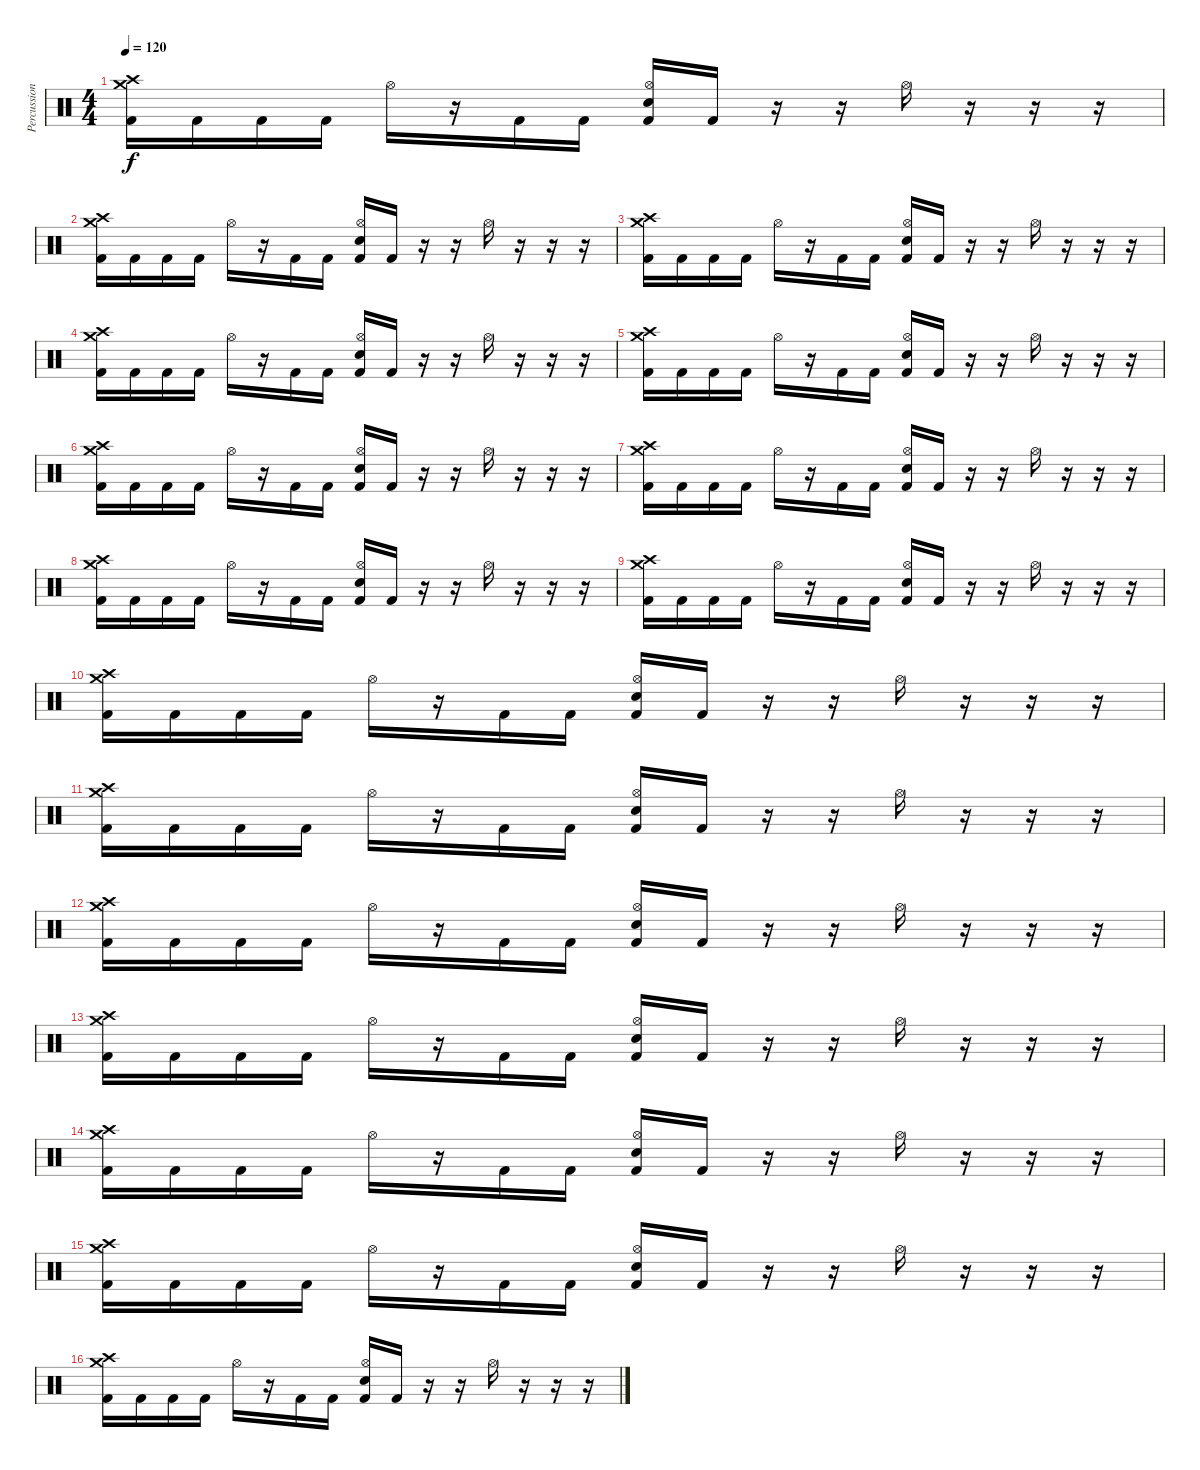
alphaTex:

\track ("Percussion" "Percussion") {instrument percussion}
\staff {score}
\articulation defaults
\ts (4 4)
\tempo 120
\clef neutral
\ks c
("Crash medium (hit)" "Crash high (hit)" "Kick (hit) 2").16{dy f} "Kick (hit) 2".16 "Kick (hit) 2".16 "Kick (hit) 2".16 "Hi-Hat (open)".16 r.16 "Kick (hit) 2".16 "Kick (hit) 2".16 ("Hi-Hat (open)" "Snare (hit) 2" "Kick (hit) 2").16 "Kick (hit) 2".16 r.16 r.16 "Hi-Hat (open)".16 r.16 r.16 r.16 |
("Crash medium (hit)" "Crash high (hit)" "Kick (hit) 2").16 "Kick (hit) 2".16 "Kick (hit) 2".16 "Kick (hit) 2".16 "Hi-Hat (open)".16 r.16 "Kick (hit) 2".16 "Kick (hit) 2".16 ("Hi-Hat (open)" "Snare (hit) 2" "Kick (hit) 2").16 "Kick (hit) 2".16 r.16 r.16 "Hi-Hat (open)".16 r.16 r.16 r.16 |
("Crash medium (hit)" "Crash high (hit)" "Kick (hit) 2").16 "Kick (hit) 2".16 "Kick (hit) 2".16 "Kick (hit) 2".16 "Hi-Hat (open)".16 r.16 "Kick (hit) 2".16 "Kick (hit) 2".16 ("Hi-Hat (open)" "Snare (hit) 2" "Kick (hit) 2").16 "Kick (hit) 2".16 r.16 r.16 "Hi-Hat (open)".16 r.16 r.16 r.16 |
("Crash medium (hit)" "Crash high (hit)" "Kick (hit) 2").16 "Kick (hit) 2".16 "Kick (hit) 2".16 "Kick (hit) 2".16 "Hi-Hat (open)".16 r.16 "Kick (hit) 2".16 "Kick (hit) 2".16 ("Hi-Hat (open)" "Snare (hit) 2" "Kick (hit) 2").16 "Kick (hit) 2".16 r.16 r.16 "Hi-Hat (open)".16 r.16 r.16 r.16 |
("Crash medium (hit)" "Crash high (hit)" "Kick (hit) 2").16 "Kick (hit) 2".16 "Kick (hit) 2".16 "Kick (hit) 2".16 "Hi-Hat (open)".16 r.16 "Kick (hit) 2".16 "Kick (hit) 2".16 ("Hi-Hat (open)" "Snare (hit) 2" "Kick (hit) 2").16 "Kick (hit) 2".16 r.16 r.16 "Hi-Hat (open)".16 r.16 r.16 r.16 |
("Crash medium (hit)" "Crash high (hit)" "Kick (hit) 2").16 "Kick (hit) 2".16 "Kick (hit) 2".16 "Kick (hit) 2".16 "Hi-Hat (open)".16 r.16 "Kick (hit) 2".16 "Kick (hit) 2".16 ("Hi-Hat (open)" "Snare (hit) 2" "Kick (hit) 2").16 "Kick (hit) 2".16 r.16 r.16 "Hi-Hat (open)".16 r.16 r.16 r.16 |
("Crash medium (hit)" "Crash high (hit)" "Kick (hit) 2").16 "Kick (hit) 2".16 "Kick (hit) 2".16 "Kick (hit) 2".16 "Hi-Hat (open)".16 r.16 "Kick (hit) 2".16 "Kick (hit) 2".16 ("Hi-Hat (open)" "Snare (hit) 2" "Kick (hit) 2").16 "Kick (hit) 2".16 r.16 r.16 "Hi-Hat (open)".16 r.16 r.16 r.16 |
("Crash medium (hit)" "Crash high (hit)" "Kick (hit) 2").16 "Kick (hit) 2".16 "Kick (hit) 2".16 "Kick (hit) 2".16 "Hi-Hat (open)".16 r.16 "Kick (hit) 2".16 "Kick (hit) 2".16 ("Hi-Hat (open)" "Snare (hit) 2" "Kick (hit) 2").16 "Kick (hit) 2".16 r.16 r.16 "Hi-Hat (open)".16 r.16 r.16 r.16 |
("Crash medium (hit)" "Crash high (hit)" "Kick (hit) 2").16 "Kick (hit) 2".16 "Kick (hit) 2".16 "Kick (hit) 2".16 "Hi-Hat (open)".16 r.16 "Kick (hit) 2".16 "Kick (hit) 2".16 ("Hi-Hat (open)" "Snare (hit) 2" "Kick (hit) 2").16 "Kick (hit) 2".16 r.16 r.16 "Hi-Hat (open)".16 r.16 r.16 r.16 |
("Crash medium (hit)" "Crash high (hit)" "Kick (hit) 2").16 "Kick (hit) 2".16 "Kick (hit) 2".16 "Kick (hit) 2".16 "Hi-Hat (open)".16 r.16 "Kick (hit) 2".16 "Kick (hit) 2".16 ("Hi-Hat (open)" "Snare (hit) 2" "Kick (hit) 2").16 "Kick (hit) 2".16 r.16 r.16 "Hi-Hat (open)".16 r.16 r.16 r.16 |
("Crash medium (hit)" "Crash high (hit)" "Kick (hit) 2").16 "Kick (hit) 2".16 "Kick (hit) 2".16 "Kick (hit) 2".16 "Hi-Hat (open)".16 r.16 "Kick (hit) 2".16 "Kick (hit) 2".16 ("Hi-Hat (open)" "Snare (hit) 2" "Kick (hit) 2").16 "Kick (hit) 2".16 r.16 r.16 "Hi-Hat (open)".16 r.16 r.16 r.16 |
("Crash medium (hit)" "Crash high (hit)" "Kick (hit) 2").16 "Kick (hit) 2".16 "Kick (hit) 2".16 "Kick (hit) 2".16 "Hi-Hat (open)".16 r.16 "Kick (hit) 2".16 "Kick (hit) 2".16 ("Hi-Hat (open)" "Snare (hit) 2" "Kick (hit) 2").16 "Kick (hit) 2".16 r.16 r.16 "Hi-Hat (open)".16 r.16 r.16 r.16 |
("Crash medium (hit)" "Crash high (hit)" "Kick (hit) 2").16 "Kick (hit) 2".16 "Kick (hit) 2".16 "Kick (hit) 2".16 "Hi-Hat (open)".16 r.16 "Kick (hit) 2".16 "Kick (hit) 2".16 ("Hi-Hat (open)" "Snare (hit) 2" "Kick (hit) 2").16 "Kick (hit) 2".16 r.16 r.16 "Hi-Hat (open)".16 r.16 r.16 r.16 |
("Crash medium (hit)" "Crash high (hit)" "Kick (hit) 2").16 "Kick (hit) 2".16 "Kick (hit) 2".16 "Kick (hit) 2".16 "Hi-Hat (open)".16 r.16 "Kick (hit) 2".16 "Kick (hit) 2".16 ("Hi-Hat (open)" "Snare (hit) 2" "Kick (hit) 2").16 "Kick (hit) 2".16 r.16 r.16 "Hi-Hat (open)".16 r.16 r.16 r.16 |
("Crash medium (hit)" "Crash high (hit)" "Kick (hit) 2").16 "Kick (hit) 2".16 "Kick (hit) 2".16 "Kick (hit) 2".16 "Hi-Hat (open)".16 r.16 "Kick (hit) 2".16 "Kick (hit) 2".16 ("Hi-Hat (open)" "Snare (hit) 2" "Kick (hit) 2").16 "Kick (hit) 2".16 r.16 r.16 "Hi-Hat (open)".16 r.16 r.16 r.16 |
("Crash medium (hit)" "Crash high (hit)" "Kick (hit) 2").16 "Kick (hit) 2".16 "Kick (hit) 2".16 "Kick (hit) 2".16 "Hi-Hat (open)".16 r.16 "Kick (hit) 2".16 "Kick (hit) 2".16 ("Hi-Hat (open)" "Snare (hit) 2" "Kick (hit) 2").16 "Kick (hit) 2".16 r.16 r.16 "Hi-Hat (open)".16 r.16 r.16 r.16
